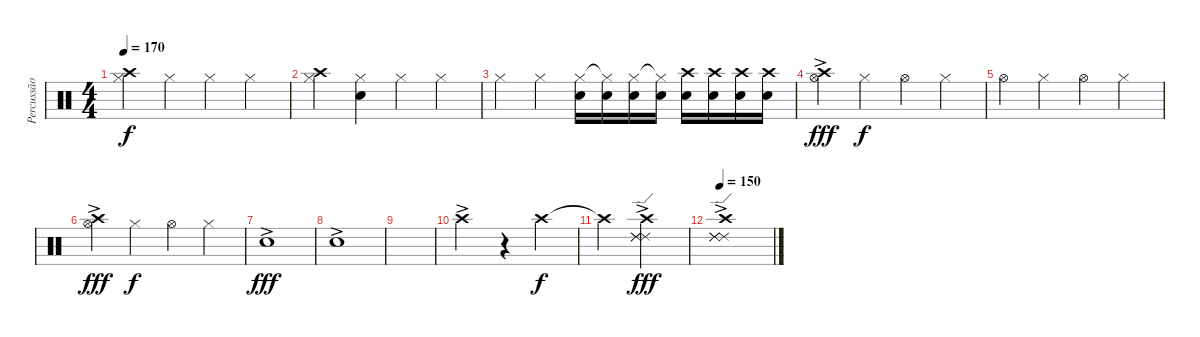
\track ("Percussão" "Percussão") {instrument percussion}
\staff {score}
\articulation defaults
\ts (4 4)
\tempo 170
\clef neutral
\ks c
("Crash high (hit)" "Hi-Hat (closed)").4{dy f} "Hi-Hat (closed)".4 "Hi-Hat (closed)".4 "Hi-Hat (closed)".4 |
("Crash high (hit)" "Hi-Hat (closed)").4 ("Snare (hit) 2" "Hi-Hat (closed)").4 "Hi-Hat (closed)".4 "Hi-Hat (closed)".4 |
"Hi-Hat (closed)".4 "Hi-Hat (closed)".4 ("Snare (hit) 2" "Hi-Hat (closed)").16{volume 10} ("Snare (hit) 2" "Hi-Hat (closed)"{t}).16 ("Snare (hit) 2" "Hi-Hat (closed)").16 ("Snare (hit) 2" "Hi-Hat (closed)"{t}).16 ("Crash high (hit)" "Snare (hit) 2").16 ("Crash high (hit)" "Snare (hit) 2").16 ("Crash high (hit)" "Snare (hit) 2").16 ("Crash high (hit)" "Snare (hit) 2").16 |
("Crash high (hit)"{ac} "Hi-Hat (open)").4{dy fff} "Hi-Hat (closed)".4{dy f} "Hi-Hat (open)".4 "Hi-Hat (closed)".4 |
"Hi-Hat (open)".4 "Hi-Hat (closed)".4 "Hi-Hat (open)".4 "Hi-Hat (closed)".4 |
("Crash high (hit)"{ac} "Hi-Hat (open)").4{dy fff} "Hi-Hat (closed)".4{dy f} "Hi-Hat (open)".4 "Hi-Hat (closed)".4 |
"Snare (hit) 2"{ac}.1{dy fff} |
"Snare (hit) 2"{ac}.1 |
|
"Crash high (hit)"{ac}.2{volume 13} r.4 "Crash high (hit)".4{dy f} |
"Crash high (hit)"{t}.2 ("Ride (edge) 2"{ac} "Ride (edge) 2"{ac} "Ride (edge) 2"{ac} "Crash high (hit)"{ac}).2{dy fff} |
\tempo 150
("Ride (edge) 2"{ac} "Ride (edge) 2"{ac} "Ride (edge) 2"{ac} "Crash high (hit)"{ac}).1
